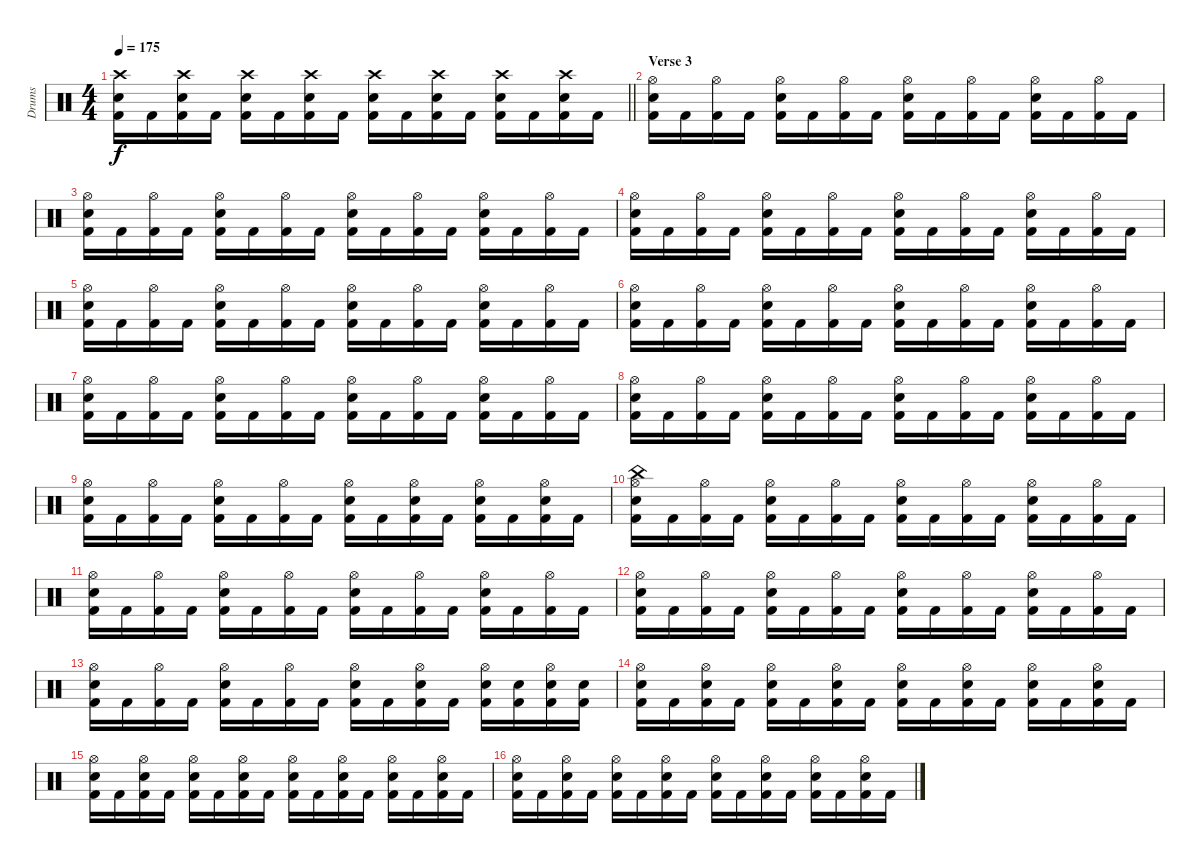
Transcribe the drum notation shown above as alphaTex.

\track ("Drums" "Drums") {instrument percussion}
\staff {score}
\articulation defaults
\ts (4 4)
\tempo 175
\clef neutral
\barLineRight lightlight
\ks c
("Crash high (hit)" "Snare (hit) 2" "Kick (hit) 2").16{dy f} "Kick (hit) 2".16 ("Crash high (hit)" "Snare (hit) 2" "Kick (hit) 2").16 "Kick (hit) 2".16 ("Crash high (hit)" "Snare (hit) 2" "Kick (hit) 2").16 "Kick (hit) 2".16 ("Crash high (hit)" "Snare (hit) 2" "Kick (hit) 2").16 "Kick (hit) 2".16 ("Crash high (hit)" "Snare (hit) 2" "Kick (hit) 2").16 "Kick (hit) 2".16 ("Crash high (hit)" "Snare (hit) 2" "Kick (hit) 2").16 "Kick (hit) 2".16 ("Crash high (hit)" "Snare (hit) 2" "Kick (hit) 2").16 "Kick (hit) 2".16 ("Crash high (hit)" "Snare (hit) 2" "Kick (hit) 2").16 "Kick (hit) 2".16 |
\section ("" "Verse 3")
("Hi-Hat (open)" "Snare (hit) 2" "Kick (hit) 2").16 "Kick (hit) 2".16 ("Hi-Hat (open)" "Kick (hit) 2").16 "Kick (hit) 2".16 ("Hi-Hat (open)" "Snare (hit) 2" "Kick (hit) 2").16 "Kick (hit) 2".16 ("Hi-Hat (open)" "Kick (hit) 2").16 "Kick (hit) 2".16 ("Hi-Hat (open)" "Snare (hit) 2" "Kick (hit) 2").16 "Kick (hit) 2".16 ("Hi-Hat (open)" "Kick (hit) 2").16 "Kick (hit) 2".16 ("Hi-Hat (open)" "Snare (hit) 2" "Kick (hit) 2").16 "Kick (hit) 2".16 ("Hi-Hat (open)" "Kick (hit) 2").16 "Kick (hit) 2".16 |
("Hi-Hat (open)" "Snare (hit) 2" "Kick (hit) 2").16 "Kick (hit) 2".16 ("Hi-Hat (open)" "Kick (hit) 2").16 "Kick (hit) 2".16 ("Hi-Hat (open)" "Snare (hit) 2" "Kick (hit) 2").16 "Kick (hit) 2".16 ("Hi-Hat (open)" "Kick (hit) 2").16 "Kick (hit) 2".16 ("Hi-Hat (open)" "Snare (hit) 2" "Kick (hit) 2").16 "Kick (hit) 2".16 ("Hi-Hat (open)" "Kick (hit) 2").16 "Kick (hit) 2".16 ("Hi-Hat (open)" "Snare (hit) 2" "Kick (hit) 2").16 "Kick (hit) 2".16 ("Hi-Hat (open)" "Kick (hit) 2").16 "Kick (hit) 2".16 |
("Hi-Hat (open)" "Snare (hit) 2" "Kick (hit) 2").16 "Kick (hit) 2".16 ("Hi-Hat (open)" "Kick (hit) 2").16 "Kick (hit) 2".16 ("Hi-Hat (open)" "Snare (hit) 2" "Kick (hit) 2").16 "Kick (hit) 2".16 ("Hi-Hat (open)" "Kick (hit) 2").16 "Kick (hit) 2".16 ("Hi-Hat (open)" "Snare (hit) 2" "Kick (hit) 2").16 "Kick (hit) 2".16 ("Hi-Hat (open)" "Kick (hit) 2").16 "Kick (hit) 2".16 ("Hi-Hat (open)" "Snare (hit) 2" "Kick (hit) 2").16 "Kick (hit) 2".16 ("Hi-Hat (open)" "Kick (hit) 2").16 "Kick (hit) 2".16 |
("Hi-Hat (open)" "Snare (hit) 2" "Kick (hit) 2").16 "Kick (hit) 2".16 ("Hi-Hat (open)" "Kick (hit) 2").16 "Kick (hit) 2".16 ("Hi-Hat (open)" "Snare (hit) 2" "Kick (hit) 2").16 "Kick (hit) 2".16 ("Hi-Hat (open)" "Kick (hit) 2").16 "Kick (hit) 2".16 ("Hi-Hat (open)" "Snare (hit) 2" "Kick (hit) 2").16 "Kick (hit) 2".16 ("Hi-Hat (open)" "Kick (hit) 2").16 "Kick (hit) 2".16 ("Hi-Hat (open)" "Snare (hit) 2" "Kick (hit) 2").16 "Kick (hit) 2".16 ("Hi-Hat (open)" "Kick (hit) 2").16 "Kick (hit) 2".16 |
("Hi-Hat (open)" "Snare (hit) 2" "Kick (hit) 2").16 "Kick (hit) 2".16 ("Hi-Hat (open)" "Kick (hit) 2").16 "Kick (hit) 2".16 ("Hi-Hat (open)" "Snare (hit) 2" "Kick (hit) 2").16 "Kick (hit) 2".16 ("Hi-Hat (open)" "Kick (hit) 2").16 "Kick (hit) 2".16 ("Hi-Hat (open)" "Snare (hit) 2" "Kick (hit) 2").16 "Kick (hit) 2".16 ("Hi-Hat (open)" "Kick (hit) 2").16 "Kick (hit) 2".16 ("Hi-Hat (open)" "Snare (hit) 2" "Kick (hit) 2").16 "Kick (hit) 2".16 ("Hi-Hat (open)" "Kick (hit) 2").16 "Kick (hit) 2".16 |
("Hi-Hat (open)" "Snare (hit) 2" "Kick (hit) 2").16 "Kick (hit) 2".16 ("Hi-Hat (open)" "Kick (hit) 2").16 "Kick (hit) 2".16 ("Hi-Hat (open)" "Snare (hit) 2" "Kick (hit) 2").16 "Kick (hit) 2".16 ("Hi-Hat (open)" "Kick (hit) 2").16 "Kick (hit) 2".16 ("Hi-Hat (open)" "Snare (hit) 2" "Kick (hit) 2").16 "Kick (hit) 2".16 ("Hi-Hat (open)" "Kick (hit) 2").16 "Kick (hit) 2".16 ("Hi-Hat (open)" "Snare (hit) 2" "Kick (hit) 2").16 "Kick (hit) 2".16 ("Hi-Hat (open)" "Kick (hit) 2").16 "Kick (hit) 2".16 |
("Hi-Hat (open)" "Snare (hit) 2" "Kick (hit) 2").16 "Kick (hit) 2".16 ("Hi-Hat (open)" "Kick (hit) 2").16 "Kick (hit) 2".16 ("Hi-Hat (open)" "Snare (hit) 2" "Kick (hit) 2").16 "Kick (hit) 2".16 ("Hi-Hat (open)" "Kick (hit) 2").16 "Kick (hit) 2".16 ("Hi-Hat (open)" "Snare (hit) 2" "Kick (hit) 2").16 "Kick (hit) 2".16 ("Hi-Hat (open)" "Kick (hit) 2").16 "Kick (hit) 2".16 ("Hi-Hat (open)" "Snare (hit) 2" "Kick (hit) 2").16 "Kick (hit) 2".16 ("Hi-Hat (open)" "Kick (hit) 2").16 "Kick (hit) 2".16 |
("Hi-Hat (open)" "Snare (hit) 2" "Kick (hit) 2").16 "Kick (hit) 2".16 ("Hi-Hat (open)" "Kick (hit) 2").16 "Kick (hit) 2".16 ("Hi-Hat (open)" "Snare (hit) 2" "Kick (hit) 2").16 "Kick (hit) 2".16 ("Hi-Hat (open)" "Kick (hit) 2").16 "Kick (hit) 2".16 ("Hi-Hat (open)" "Snare (hit) 2" "Kick (hit) 2").16 "Kick (hit) 2".16 ("Hi-Hat (open)" "Snare (hit) 2" "Kick (hit) 2").16 "Kick (hit) 2".16 ("Hi-Hat (open)" "Snare (hit) 2" "Kick (hit) 2").16 "Kick (hit) 2".16 ("Hi-Hat (open)" "Snare (hit) 2" "Kick (hit) 2").16 "Kick (hit) 2".16 |
("Hi-Hat (open)" "China (hit)" "Snare (hit) 2" "Kick (hit) 2").16 "Kick (hit) 2".16 ("Hi-Hat (open)" "Kick (hit) 2").16 "Kick (hit) 2".16 ("Hi-Hat (open)" "Snare (hit) 2" "Kick (hit) 2").16 "Kick (hit) 2".16 ("Hi-Hat (open)" "Kick (hit) 2").16 "Kick (hit) 2".16 ("Hi-Hat (open)" "Snare (hit) 2" "Kick (hit) 2").16 "Kick (hit) 2".16 ("Hi-Hat (open)" "Kick (hit) 2").16 "Kick (hit) 2".16 ("Hi-Hat (open)" "Snare (hit) 2" "Kick (hit) 2").16 "Kick (hit) 2".16 ("Hi-Hat (open)" "Kick (hit) 2").16 "Kick (hit) 2".16 |
("Hi-Hat (open)" "Snare (hit) 2" "Kick (hit) 2").16 "Kick (hit) 2".16 ("Hi-Hat (open)" "Kick (hit) 2").16 "Kick (hit) 2".16 ("Hi-Hat (open)" "Snare (hit) 2" "Kick (hit) 2").16 "Kick (hit) 2".16 ("Hi-Hat (open)" "Kick (hit) 2").16 "Kick (hit) 2".16 ("Hi-Hat (open)" "Snare (hit) 2" "Kick (hit) 2").16 "Kick (hit) 2".16 ("Hi-Hat (open)" "Kick (hit) 2").16 "Kick (hit) 2".16 ("Hi-Hat (open)" "Snare (hit) 2" "Kick (hit) 2").16 "Kick (hit) 2".16 ("Hi-Hat (open)" "Kick (hit) 2").16 "Kick (hit) 2".16 |
("Hi-Hat (open)" "Snare (hit) 2" "Kick (hit) 2").16 "Kick (hit) 2".16 ("Hi-Hat (open)" "Kick (hit) 2").16 "Kick (hit) 2".16 ("Hi-Hat (open)" "Snare (hit) 2" "Kick (hit) 2").16 "Kick (hit) 2".16 ("Hi-Hat (open)" "Kick (hit) 2").16 "Kick (hit) 2".16 ("Hi-Hat (open)" "Snare (hit) 2" "Kick (hit) 2").16 "Kick (hit) 2".16 ("Hi-Hat (open)" "Kick (hit) 2").16 "Kick (hit) 2".16 ("Hi-Hat (open)" "Snare (hit) 2" "Kick (hit) 2").16 "Kick (hit) 2".16 ("Hi-Hat (open)" "Kick (hit) 2").16 "Kick (hit) 2".16 |
("Hi-Hat (open)" "Snare (hit) 2" "Kick (hit) 2").16 "Kick (hit) 2".16 ("Hi-Hat (open)" "Kick (hit) 2").16 "Kick (hit) 2".16 ("Hi-Hat (open)" "Snare (hit) 2" "Kick (hit) 2").16 "Kick (hit) 2".16 ("Hi-Hat (open)" "Kick (hit) 2").16 "Kick (hit) 2".16 ("Hi-Hat (open)" "Snare (hit) 2" "Kick (hit) 2").16 "Kick (hit) 2".16 ("Hi-Hat (open)" "Snare (hit) 2" "Kick (hit) 2").16 "Kick (hit) 2".16 ("Hi-Hat (open)" "Snare (hit) 2" "Kick (hit) 2").16 ("Snare (hit) 2" "Kick (hit) 2").16 ("Hi-Hat (open)" "Snare (hit) 2" "Kick (hit) 2").16 ("Snare (hit) 2" "Kick (hit) 2").16 |
("Hi-Hat (open)" "Snare (hit) 2" "Kick (hit) 2").16 "Kick (hit) 2".16 ("Hi-Hat (open)" "Snare (hit) 2" "Kick (hit) 2").16 "Kick (hit) 2".16 ("Hi-Hat (open)" "Snare (hit) 2" "Kick (hit) 2").16 "Kick (hit) 2".16 ("Hi-Hat (open)" "Snare (hit) 2" "Kick (hit) 2").16 "Kick (hit) 2".16 ("Hi-Hat (open)" "Snare (hit) 2" "Kick (hit) 2").16 "Kick (hit) 2".16 ("Hi-Hat (open)" "Snare (hit) 2" "Kick (hit) 2").16 "Kick (hit) 2".16 ("Hi-Hat (open)" "Snare (hit) 2" "Kick (hit) 2").16 "Kick (hit) 2".16 ("Hi-Hat (open)" "Snare (hit) 2" "Kick (hit) 2").16 "Kick (hit) 2".16 |
("Hi-Hat (open)" "Snare (hit) 2" "Kick (hit) 2").16 "Kick (hit) 2".16 ("Hi-Hat (open)" "Snare (hit) 2" "Kick (hit) 2").16 "Kick (hit) 2".16 ("Hi-Hat (open)" "Snare (hit) 2" "Kick (hit) 2").16 "Kick (hit) 2".16 ("Hi-Hat (open)" "Snare (hit) 2" "Kick (hit) 2").16 "Kick (hit) 2".16 ("Hi-Hat (open)" "Snare (hit) 2" "Kick (hit) 2").16 "Kick (hit) 2".16 ("Hi-Hat (open)" "Snare (hit) 2" "Kick (hit) 2").16 "Kick (hit) 2".16 ("Hi-Hat (open)" "Snare (hit) 2" "Kick (hit) 2").16 "Kick (hit) 2".16 ("Hi-Hat (open)" "Snare (hit) 2" "Kick (hit) 2").16 "Kick (hit) 2".16 |
("Hi-Hat (open)" "Snare (hit) 2" "Kick (hit) 2").16 "Kick (hit) 2".16 ("Hi-Hat (open)" "Snare (hit) 2" "Kick (hit) 2").16 "Kick (hit) 2".16 ("Hi-Hat (open)" "Snare (hit) 2" "Kick (hit) 2").16 "Kick (hit) 2".16 ("Hi-Hat (open)" "Snare (hit) 2" "Kick (hit) 2").16 "Kick (hit) 2".16 ("Hi-Hat (open)" "Snare (hit) 2" "Kick (hit) 2").16 "Kick (hit) 2".16 ("Hi-Hat (open)" "Snare (hit) 2" "Kick (hit) 2").16 "Kick (hit) 2".16 ("Hi-Hat (open)" "Snare (hit) 2" "Kick (hit) 2").16 "Kick (hit) 2".16 ("Hi-Hat (open)" "Snare (hit) 2" "Kick (hit) 2").16 "Kick (hit) 2".16
